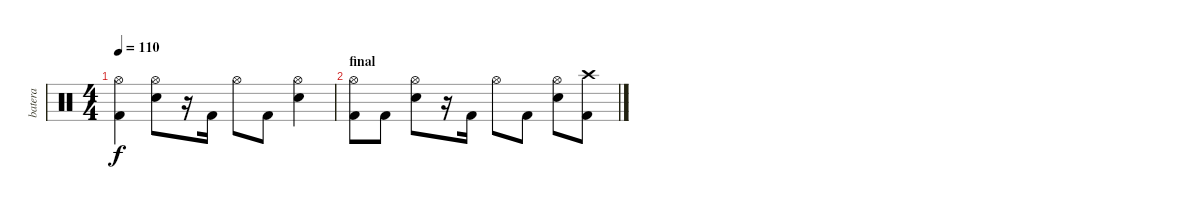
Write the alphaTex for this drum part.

\track ("batera" "batera") {instrument percussion}
\staff {score}
\articulation defaults
\ts (4 4)
\tempo 110
\clef neutral
\ks c
("Kick (hit) 2" "Hi-Hat (open)").4{dy f} ("Snare (hit) 2" "Hi-Hat (open)").8 r.16 "Kick (hit) 2".16 "Hi-Hat (open)".8 "Kick (hit) 2".8 ("Snare (hit) 2" "Hi-Hat (open)").4 |
\section ("" "final")
("Kick (hit) 2" "Hi-Hat (open)").8 "Kick (hit) 2".8 ("Snare (hit) 2" "Hi-Hat (open)").8 r.16 "Kick (hit) 2".16 "Hi-Hat (open)".8 "Kick (hit) 2".8 ("Snare (hit) 2" "Hi-Hat (open)").8 ("Crash high (hit)" "Kick (hit) 2").8
